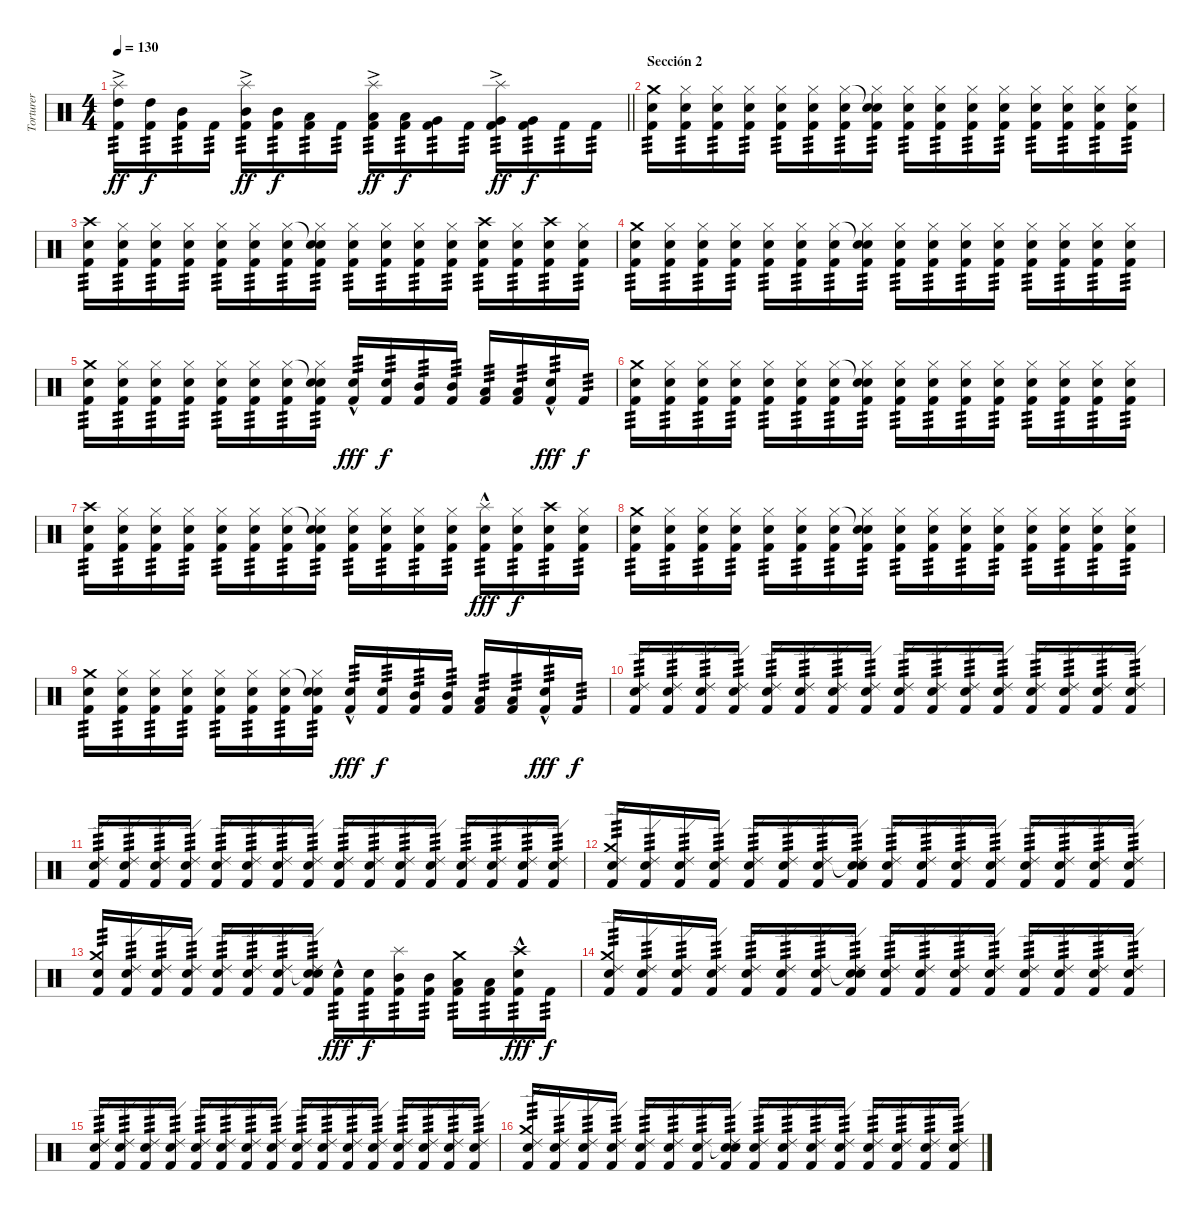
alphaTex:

\track ("Torturer" "Torturer") {instrument percussion}
\staff {score}
\articulation defaults
\ts (4 4)
\tempo 130
\clef neutral
\barLineRight lightlight
\ks c
("Splash (hit)" "High Tom (hit)"{ac} "Kick (hit) 2").16{tp 3 dy ff} ("High Tom (hit)" "Kick (hit) 2").16{tp 3 dy f} ("Mid Tom (hit)" "Kick (hit) 2").16{tp 3} "Kick (hit) 2".16{tp 3} ("Splash (hit)" "Mid Tom (hit)"{ac} "Kick (hit) 2").16{tp 3 dy ff} ("Mid Tom (hit)" "Kick (hit) 2").16{tp 3 dy f} ("Low Tom (hit)" "Kick (hit) 2").16{tp 3} "Kick (hit) 2".16{tp 3} ("Splash (hit)" "Low Tom (hit)"{ac} "Kick (hit) 2").16{tp 3 dy ff} ("Low Tom (hit)" "Kick (hit) 2").16{tp 3 dy f} ("Very Low Tom (hit)" "Kick (hit) 2").16{tp 3} "Kick (hit) 2".16{tp 3} ("Splash (hit)" "Very Low Tom (hit)"{ac} "Kick (hit) 2").16{tp 3 dy ff} ("Very Low Tom (hit)" "Kick (hit) 2").16{tp 3 dy f} "Kick (hit) 2".16{tp 3} "Kick (hit) 2".16{tp 3} |
\section ("" "Sección 2")
("Crash medium (hit)" "Snare (hit) 2" "Kick (hit) 2").16{tp 3} ("Hi-Hat (closed)" "Snare (hit) 2" "Kick (hit) 2").16{tp 3} ("Hi-Hat (closed)" "Snare (hit) 2" "Kick (hit) 2").16{tp 3} ("Hi-Hat (closed)" "Snare (hit) 2" "Kick (hit) 2").16{tp 3} ("Hi-Hat (closed)" "Snare (hit) 2" "Kick (hit) 2").16{tp 3} ("Hi-Hat (closed)" "Snare (hit) 2" "Kick (hit) 2").16{tp 3} ("Hi-Hat (closed)" "Snare (hit) 2" "Kick (hit) 2").16{tp 3} ("Snare (hit)"{t} "Hi-Hat (closed)" "Snare (hit) 2" "Kick (hit) 2").16{tp 3} ("Hi-Hat (closed)" "Snare (hit) 2" "Kick (hit) 2").16{tp 3} ("Hi-Hat (closed)" "Snare (hit) 2" "Kick (hit) 2").16{tp 3} ("Hi-Hat (closed)" "Snare (hit) 2" "Kick (hit) 2").16{tp 3} ("Hi-Hat (closed)" "Snare (hit) 2" "Kick (hit) 2").16{tp 3} ("Hi-Hat (closed)" "Snare (hit) 2" "Kick (hit) 2").16{tp 3} ("Hi-Hat (closed)" "Snare (hit) 2" "Kick (hit) 2").16{tp 3} ("Hi-Hat (closed)" "Snare (hit) 2" "Kick (hit) 2").16{tp 3} ("Hi-Hat (closed)" "Snare (hit) 2" "Kick (hit) 2").16{tp 3} |
("Crash high (hit)" "Snare (hit) 2" "Kick (hit) 2").16{tp 3} ("Hi-Hat (closed)" "Snare (hit) 2" "Kick (hit) 2").16{tp 3} ("Hi-Hat (closed)" "Snare (hit) 2" "Kick (hit) 2").16{tp 3} ("Hi-Hat (closed)" "Snare (hit) 2" "Kick (hit) 2").16{tp 3} ("Hi-Hat (closed)" "Snare (hit) 2" "Kick (hit) 2").16{tp 3} ("Hi-Hat (closed)" "Snare (hit) 2" "Kick (hit) 2").16{tp 3} ("Hi-Hat (closed)" "Snare (hit) 2" "Kick (hit) 2").16{tp 3} ("Snare (hit)"{t} "Hi-Hat (closed)" "Snare (hit) 2" "Kick (hit) 2").16{tp 3} ("Hi-Hat (closed)" "Snare (hit) 2" "Kick (hit) 2").16{tp 3} ("Hi-Hat (closed)" "Snare (hit) 2" "Kick (hit) 2").16{tp 3} ("Hi-Hat (closed)" "Snare (hit) 2" "Kick (hit) 2").16{tp 3} ("Hi-Hat (closed)" "Snare (hit) 2" "Kick (hit) 2").16{tp 3} ("Crash high (hit)" "Snare (hit) 2" "Kick (hit) 2").16{tp 3} ("Hi-Hat (closed)" "Snare (hit) 2" "Kick (hit) 2").16{tp 3} ("Crash high (hit)" "Snare (hit) 2" "Kick (hit) 2").16{tp 3} ("Hi-Hat (closed)" "Snare (hit) 2" "Kick (hit) 2").16{tp 3} |
("Crash medium (hit)" "Snare (hit) 2" "Kick (hit) 2").16{tp 3} ("Hi-Hat (closed)" "Snare (hit) 2" "Kick (hit) 2").16{tp 3} ("Hi-Hat (closed)" "Snare (hit) 2" "Kick (hit) 2").16{tp 3} ("Hi-Hat (closed)" "Snare (hit) 2" "Kick (hit) 2").16{tp 3} ("Hi-Hat (closed)" "Snare (hit) 2" "Kick (hit) 2").16{tp 3} ("Hi-Hat (closed)" "Snare (hit) 2" "Kick (hit) 2").16{tp 3} ("Hi-Hat (closed)" "Snare (hit) 2" "Kick (hit) 2").16{tp 3} ("Snare (hit)"{t} "Hi-Hat (closed)" "Snare (hit) 2" "Kick (hit) 2").16{tp 3} ("Hi-Hat (closed)" "Snare (hit) 2" "Kick (hit) 2").16{tp 3} ("Hi-Hat (closed)" "Snare (hit) 2" "Kick (hit) 2").16{tp 3} ("Hi-Hat (closed)" "Snare (hit) 2" "Kick (hit) 2").16{tp 3} ("Hi-Hat (closed)" "Snare (hit) 2" "Kick (hit) 2").16{tp 3} ("Hi-Hat (closed)" "Snare (hit) 2" "Kick (hit) 2").16{tp 3} ("Hi-Hat (closed)" "Snare (hit) 2" "Kick (hit) 2").16{tp 3} ("Hi-Hat (closed)" "Snare (hit) 2" "Kick (hit) 2").16{tp 3} ("Hi-Hat (closed)" "Snare (hit) 2" "Kick (hit) 2").16{tp 3} |
("Crash medium (hit)" "Snare (hit) 2" "Kick (hit) 2").16{tp 3} ("Hi-Hat (closed)" "Snare (hit) 2" "Kick (hit) 2").16{tp 3} ("Hi-Hat (closed)" "Snare (hit) 2" "Kick (hit) 2").16{tp 3} ("Hi-Hat (closed)" "Snare (hit) 2" "Kick (hit) 2").16{tp 3} ("Hi-Hat (closed)" "Snare (hit) 2" "Kick (hit) 2").16{tp 3} ("Hi-Hat (closed)" "Snare (hit) 2" "Kick (hit) 2").16{tp 3} ("Hi-Hat (closed)" "Snare (hit) 2" "Kick (hit) 2").16{tp 3} ("Snare (hit)"{t} "Hi-Hat (closed)" "Snare (hit) 2" "Kick (hit) 2").16{tp 3} ("Snare (hit) 2"{hac} "Kick (hit) 2").16{tp 3 dy fff} ("Snare (hit) 2" "Kick (hit) 2").16{tp 3 dy f} ("Mid Tom (hit)" "Kick (hit) 2").16{tp 3} ("Mid Tom (hit)" "Kick (hit) 2").16{tp 3} ("Low Tom (hit)" "Kick (hit) 2").16{tp 3} ("Low Tom (hit)" "Kick (hit) 2").16{tp 3} ("Snare (hit) 2"{hac} "Kick (hit) 2").16{tp 3 dy fff} "Kick (hit) 2".16{tp 3 dy f} |
("Crash medium (hit)" "Snare (hit) 2" "Kick (hit) 2").16{tp 3} ("Hi-Hat (closed)" "Snare (hit) 2" "Kick (hit) 2").16{tp 3} ("Hi-Hat (closed)" "Snare (hit) 2" "Kick (hit) 2").16{tp 3} ("Hi-Hat (closed)" "Snare (hit) 2" "Kick (hit) 2").16{tp 3} ("Hi-Hat (closed)" "Snare (hit) 2" "Kick (hit) 2").16{tp 3} ("Hi-Hat (closed)" "Snare (hit) 2" "Kick (hit) 2").16{tp 3} ("Hi-Hat (closed)" "Snare (hit) 2" "Kick (hit) 2").16{tp 3} ("Snare (hit)"{t} "Hi-Hat (closed)" "Snare (hit) 2" "Kick (hit) 2").16{tp 3} ("Hi-Hat (closed)" "Snare (hit) 2" "Kick (hit) 2").16{tp 3} ("Hi-Hat (closed)" "Snare (hit) 2" "Kick (hit) 2").16{tp 3} ("Hi-Hat (closed)" "Snare (hit) 2" "Kick (hit) 2").16{tp 3} ("Hi-Hat (closed)" "Snare (hit) 2" "Kick (hit) 2").16{tp 3} ("Hi-Hat (closed)" "Snare (hit) 2" "Kick (hit) 2").16{tp 3} ("Hi-Hat (closed)" "Snare (hit) 2" "Kick (hit) 2").16{tp 3} ("Hi-Hat (closed)" "Snare (hit) 2" "Kick (hit) 2").16{tp 3} ("Hi-Hat (closed)" "Snare (hit) 2" "Kick (hit) 2").16{tp 3} |
("Crash high (hit)" "Snare (hit) 2" "Kick (hit) 2").16{tp 3} ("Hi-Hat (closed)" "Snare (hit) 2" "Kick (hit) 2").16{tp 3} ("Hi-Hat (closed)" "Snare (hit) 2" "Kick (hit) 2").16{tp 3} ("Hi-Hat (closed)" "Snare (hit) 2" "Kick (hit) 2").16{tp 3} ("Hi-Hat (closed)" "Snare (hit) 2" "Kick (hit) 2").16{tp 3} ("Hi-Hat (closed)" "Snare (hit) 2" "Kick (hit) 2").16{tp 3} ("Hi-Hat (closed)" "Snare (hit) 2" "Kick (hit) 2").16{tp 3} ("Snare (hit)"{t} "Hi-Hat (closed)" "Snare (hit) 2" "Kick (hit) 2").16{tp 3} ("Hi-Hat (closed)" "Snare (hit) 2" "Kick (hit) 2").16{tp 3} ("Hi-Hat (closed)" "Snare (hit) 2" "Kick (hit) 2").16{tp 3} ("Hi-Hat (closed)" "Snare (hit) 2" "Kick (hit) 2").16{tp 3} ("Hi-Hat (closed)" "Snare (hit) 2" "Kick (hit) 2").16{tp 3} ("Splash (hit)"{hac} "Snare (hit) 2" "Kick (hit) 2").16{tp 3 dy fff} ("Hi-Hat (closed)" "Snare (hit) 2" "Kick (hit) 2").16{tp 3 dy f} ("Crash high (hit)" "Snare (hit) 2" "Kick (hit) 2").16{tp 3} ("Hi-Hat (closed)" "Snare (hit) 2" "Kick (hit) 2").16{tp 3} |
("Crash medium (hit)" "Snare (hit) 2" "Kick (hit) 2").16{tp 3} ("Hi-Hat (closed)" "Snare (hit) 2" "Kick (hit) 2").16{tp 3} ("Hi-Hat (closed)" "Snare (hit) 2" "Kick (hit) 2").16{tp 3} ("Hi-Hat (closed)" "Snare (hit) 2" "Kick (hit) 2").16{tp 3} ("Hi-Hat (closed)" "Snare (hit) 2" "Kick (hit) 2").16{tp 3} ("Hi-Hat (closed)" "Snare (hit) 2" "Kick (hit) 2").16{tp 3} ("Hi-Hat (closed)" "Snare (hit) 2" "Kick (hit) 2").16{tp 3} ("Snare (hit)"{t} "Hi-Hat (closed)" "Snare (hit) 2" "Kick (hit) 2").16{tp 3} ("Hi-Hat (closed)" "Snare (hit) 2" "Kick (hit) 2").16{tp 3} ("Hi-Hat (closed)" "Snare (hit) 2" "Kick (hit) 2").16{tp 3} ("Hi-Hat (closed)" "Snare (hit) 2" "Kick (hit) 2").16{tp 3} ("Hi-Hat (closed)" "Snare (hit) 2" "Kick (hit) 2").16{tp 3} ("Hi-Hat (closed)" "Snare (hit) 2" "Kick (hit) 2").16{tp 3} ("Hi-Hat (closed)" "Snare (hit) 2" "Kick (hit) 2").16{tp 3} ("Hi-Hat (closed)" "Snare (hit) 2" "Kick (hit) 2").16{tp 3} ("Hi-Hat (closed)" "Snare (hit) 2" "Kick (hit) 2").16{tp 3} |
("Crash medium (hit)" "Snare (hit) 2" "Kick (hit) 2").16{tp 3} ("Hi-Hat (closed)" "Snare (hit) 2" "Kick (hit) 2").16{tp 3} ("Hi-Hat (closed)" "Snare (hit) 2" "Kick (hit) 2").16{tp 3} ("Hi-Hat (closed)" "Snare (hit) 2" "Kick (hit) 2").16{tp 3} ("Hi-Hat (closed)" "Snare (hit) 2" "Kick (hit) 2").16{tp 3} ("Hi-Hat (closed)" "Snare (hit) 2" "Kick (hit) 2").16{tp 3} ("Hi-Hat (closed)" "Snare (hit) 2" "Kick (hit) 2").16{tp 3} ("Snare (hit)"{t} "Hi-Hat (closed)" "Snare (hit) 2" "Kick (hit) 2").16{tp 3} ("Snare (hit) 2"{hac} "Kick (hit) 2").16{tp 3 dy fff} ("Snare (hit) 2" "Kick (hit) 2").16{tp 3 dy f} ("Mid Tom (hit)" "Kick (hit) 2").16{tp 3} ("Mid Tom (hit)" "Kick (hit) 2").16{tp 3} ("Low Tom (hit)" "Kick (hit) 2").16{tp 3} ("Low Tom (hit)" "Kick (hit) 2").16{tp 3} ("Snare (hit) 2"{hac} "Kick (hit) 2").16{tp 3 dy fff} "Kick (hit) 2".16{tp 3 dy f} |
("Ride (edge) 2" "Snare (hit) 2" "Kick (hit) 2").16{tp 3} ("Ride (edge) 2" "Snare (hit) 2" "Kick (hit) 2").16{tp 3} ("Ride (edge) 2" "Snare (hit) 2" "Kick (hit) 2").16{tp 3} ("Ride (edge) 2" "Snare (hit) 2" "Kick (hit) 2").16{tp 3} ("Ride (edge) 2" "Snare (hit) 2" "Kick (hit) 2").16{tp 3} ("Ride (edge) 2" "Snare (hit) 2" "Kick (hit) 2").16{tp 3} ("Ride (edge) 2" "Snare (hit) 2" "Kick (hit) 2").16{tp 3} ("Ride (edge) 2" "Snare (hit) 2" "Kick (hit) 2").16{tp 3} ("Ride (edge) 2" "Snare (hit) 2" "Kick (hit) 2").16{tp 3} ("Ride (edge) 2" "Snare (hit) 2" "Kick (hit) 2").16{tp 3} ("Ride (edge) 2" "Snare (hit) 2" "Kick (hit) 2").16{tp 3} ("Ride (edge) 2" "Snare (hit) 2" "Kick (hit) 2").16{tp 3} ("Ride (edge) 2" "Snare (hit) 2" "Kick (hit) 2").16{tp 3} ("Ride (edge) 2" "Snare (hit) 2" "Kick (hit) 2").16{tp 3} ("Ride (edge) 2" "Snare (hit) 2" "Kick (hit) 2").16{tp 3} ("Ride (edge) 2" "Snare (hit) 2" "Kick (hit) 2").16{tp 3} |
("Ride (edge) 2" "Snare (hit) 2" "Kick (hit) 2").16{tp 3} ("Ride (edge) 2" "Snare (hit) 2" "Kick (hit) 2").16{tp 3} ("Ride (edge) 2" "Snare (hit) 2" "Kick (hit) 2").16{tp 3} ("Ride (edge) 2" "Snare (hit) 2" "Kick (hit) 2").16{tp 3} ("Ride (edge) 2" "Snare (hit) 2" "Kick (hit) 2").16{tp 3} ("Ride (edge) 2" "Snare (hit) 2" "Kick (hit) 2").16{tp 3} ("Ride (edge) 2" "Snare (hit) 2" "Kick (hit) 2").16{tp 3} ("Ride (edge) 2" "Snare (hit) 2" "Kick (hit) 2").16{tp 3} ("Ride (edge) 2" "Snare (hit) 2" "Kick (hit) 2").16{tp 3} ("Ride (edge) 2" "Snare (hit) 2" "Kick (hit) 2").16{tp 3} ("Ride (edge) 2" "Snare (hit) 2" "Kick (hit) 2").16{tp 3} ("Ride (edge) 2" "Snare (hit) 2" "Kick (hit) 2").16{tp 3} ("Ride (edge) 2" "Snare (hit) 2" "Kick (hit) 2").16{tp 3} ("Ride (edge) 2" "Snare (hit) 2" "Kick (hit) 2").16{tp 3} ("Ride (edge) 2" "Snare (hit) 2" "Kick (hit) 2").16{tp 3} ("Ride (edge) 2" "Snare (hit) 2" "Kick (hit) 2").16{tp 3} |
("Crash medium (hit)" "Ride (edge) 2" "Snare (hit) 2" "Kick (hit) 2").16{tp 3} ("Ride (edge) 2" "Snare (hit) 2" "Kick (hit) 2").16{tp 3} ("Ride (edge) 2" "Snare (hit) 2" "Kick (hit) 2").16{tp 3} ("Ride (edge) 2" "Snare (hit) 2" "Kick (hit) 2").16{tp 3} ("Ride (edge) 2" "Snare (hit) 2" "Kick (hit) 2").16{tp 3} ("Ride (edge) 2" "Snare (hit) 2" "Kick (hit) 2").16{tp 3} ("Ride (edge) 2" "Snare (hit) 2" "Kick (hit) 2").16{tp 3} ("Snare (hit)"{t} "Ride (edge) 2" "Snare (hit) 2" "Kick (hit) 2").16{tp 3} ("Ride (edge) 2" "Snare (hit) 2" "Kick (hit) 2").16{tp 3} ("Ride (edge) 2" "Snare (hit) 2" "Kick (hit) 2").16{tp 3} ("Ride (edge) 2" "Snare (hit) 2" "Kick (hit) 2").16{tp 3} ("Ride (edge) 2" "Snare (hit) 2" "Kick (hit) 2").16{tp 3} ("Ride (edge) 2" "Snare (hit) 2" "Kick (hit) 2").16{tp 3} ("Ride (edge) 2" "Snare (hit) 2" "Kick (hit) 2").16{tp 3} ("Ride (edge) 2" "Snare (hit) 2" "Kick (hit) 2").16{tp 3} ("Ride (edge) 2" "Snare (hit) 2" "Kick (hit) 2").16{tp 3} |
("Crash medium (hit)" "Snare (hit) 2" "Kick (hit) 2").16{tp 3} ("Ride (edge) 2" "Snare (hit) 2" "Kick (hit) 2").16{tp 3} ("Ride (edge) 2" "Snare (hit) 2" "Kick (hit) 2").16{tp 3} ("Ride (edge) 2" "Snare (hit) 2" "Kick (hit) 2").16{tp 3} ("Ride (edge) 2" "Snare (hit) 2" "Kick (hit) 2").16{tp 3} ("Ride (edge) 2" "Snare (hit) 2" "Kick (hit) 2").16{tp 3} ("Ride (edge) 2" "Snare (hit) 2" "Kick (hit) 2").16{tp 3} ("Snare (hit)"{t} "Ride (edge) 2" "Snare (hit) 2" "Kick (hit) 2").16{tp 3} ("Snare (hit) 2"{hac} "Kick (hit) 2").16{tp 3 dy fff} ("Snare (hit) 2" "Kick (hit) 2").16{tp 3 dy f} ("Splash (hit)" "Mid Tom (hit)" "Kick (hit) 2").16{tp 3} ("Mid Tom (hit)" "Kick (hit) 2").16{tp 3} ("Crash medium (hit)" "Low Tom (hit)" "Kick (hit) 2").16{tp 3} ("Low Tom (hit)" "Kick (hit) 2").16{tp 3} ("Crash high (hit)" "Snare (hit) 2"{hac} "Kick (hit) 2").16{tp 3 dy fff} "Kick (hit) 2".16{tp 3 dy f} |
("Crash medium (hit)" "Ride (edge) 2" "Snare (hit) 2" "Kick (hit) 2").16{tp 3} ("Ride (edge) 2" "Snare (hit) 2" "Kick (hit) 2").16{tp 3} ("Ride (edge) 2" "Snare (hit) 2" "Kick (hit) 2").16{tp 3} ("Ride (edge) 2" "Snare (hit) 2" "Kick (hit) 2").16{tp 3} ("Ride (edge) 2" "Snare (hit) 2" "Kick (hit) 2").16{tp 3} ("Ride (edge) 2" "Snare (hit) 2" "Kick (hit) 2").16{tp 3} ("Ride (edge) 2" "Snare (hit) 2" "Kick (hit) 2").16{tp 3} ("Snare (hit)"{t} "Ride (edge) 2" "Snare (hit) 2" "Kick (hit) 2").16{tp 3} ("Ride (edge) 2" "Snare (hit) 2" "Kick (hit) 2").16{tp 3} ("Ride (edge) 2" "Snare (hit) 2" "Kick (hit) 2").16{tp 3} ("Ride (edge) 2" "Snare (hit) 2" "Kick (hit) 2").16{tp 3} ("Ride (edge) 2" "Snare (hit) 2" "Kick (hit) 2").16{tp 3} ("Ride (edge) 2" "Snare (hit) 2" "Kick (hit) 2").16{tp 3} ("Ride (edge) 2" "Snare (hit) 2" "Kick (hit) 2").16{tp 3} ("Ride (edge) 2" "Snare (hit) 2" "Kick (hit) 2").16{tp 3} ("Ride (edge) 2" "Snare (hit) 2" "Kick (hit) 2").16{tp 3} |
("Ride (edge) 2" "Snare (hit) 2" "Kick (hit) 2").16{tp 3} ("Ride (edge) 2" "Snare (hit) 2" "Kick (hit) 2").16{tp 3} ("Ride (edge) 2" "Snare (hit) 2" "Kick (hit) 2").16{tp 3} ("Ride (edge) 2" "Snare (hit) 2" "Kick (hit) 2").16{tp 3} ("Ride (edge) 2" "Snare (hit) 2" "Kick (hit) 2").16{tp 3} ("Ride (edge) 2" "Snare (hit) 2" "Kick (hit) 2").16{tp 3} ("Ride (edge) 2" "Snare (hit) 2" "Kick (hit) 2").16{tp 3} ("Ride (edge) 2" "Snare (hit) 2" "Kick (hit) 2").16{tp 3} ("Ride (edge) 2" "Snare (hit) 2" "Kick (hit) 2").16{tp 3} ("Ride (edge) 2" "Snare (hit) 2" "Kick (hit) 2").16{tp 3} ("Ride (edge) 2" "Snare (hit) 2" "Kick (hit) 2").16{tp 3} ("Ride (edge) 2" "Snare (hit) 2" "Kick (hit) 2").16{tp 3} ("Ride (edge) 2" "Snare (hit) 2" "Kick (hit) 2").16{tp 3} ("Ride (edge) 2" "Snare (hit) 2" "Kick (hit) 2").16{tp 3} ("Ride (edge) 2" "Snare (hit) 2" "Kick (hit) 2").16{tp 3} ("Ride (edge) 2" "Snare (hit) 2" "Kick (hit) 2").16{tp 3} |
("Crash medium (hit)" "Ride (edge) 2" "Snare (hit) 2" "Kick (hit) 2").16{tp 3} ("Ride (edge) 2" "Snare (hit) 2" "Kick (hit) 2").16{tp 3} ("Ride (edge) 2" "Snare (hit) 2" "Kick (hit) 2").16{tp 3} ("Ride (edge) 2" "Snare (hit) 2" "Kick (hit) 2").16{tp 3} ("Ride (edge) 2" "Snare (hit) 2" "Kick (hit) 2").16{tp 3} ("Ride (edge) 2" "Snare (hit) 2" "Kick (hit) 2").16{tp 3} ("Ride (edge) 2" "Snare (hit) 2" "Kick (hit) 2").16{tp 3} ("Snare (hit)"{t} "Ride (edge) 2" "Snare (hit) 2" "Kick (hit) 2").16{tp 3} ("Ride (edge) 2" "Snare (hit) 2" "Kick (hit) 2").16{tp 3} ("Ride (edge) 2" "Snare (hit) 2" "Kick (hit) 2").16{tp 3} ("Ride (edge) 2" "Snare (hit) 2" "Kick (hit) 2").16{tp 3} ("Ride (edge) 2" "Snare (hit) 2" "Kick (hit) 2").16{tp 3} ("Ride (edge) 2" "Snare (hit) 2" "Kick (hit) 2").16{tp 3} ("Ride (edge) 2" "Snare (hit) 2" "Kick (hit) 2").16{tp 3} ("Ride (edge) 2" "Snare (hit) 2" "Kick (hit) 2").16{tp 3} ("Ride (edge) 2" "Snare (hit) 2" "Kick (hit) 2").16{tp 3}
